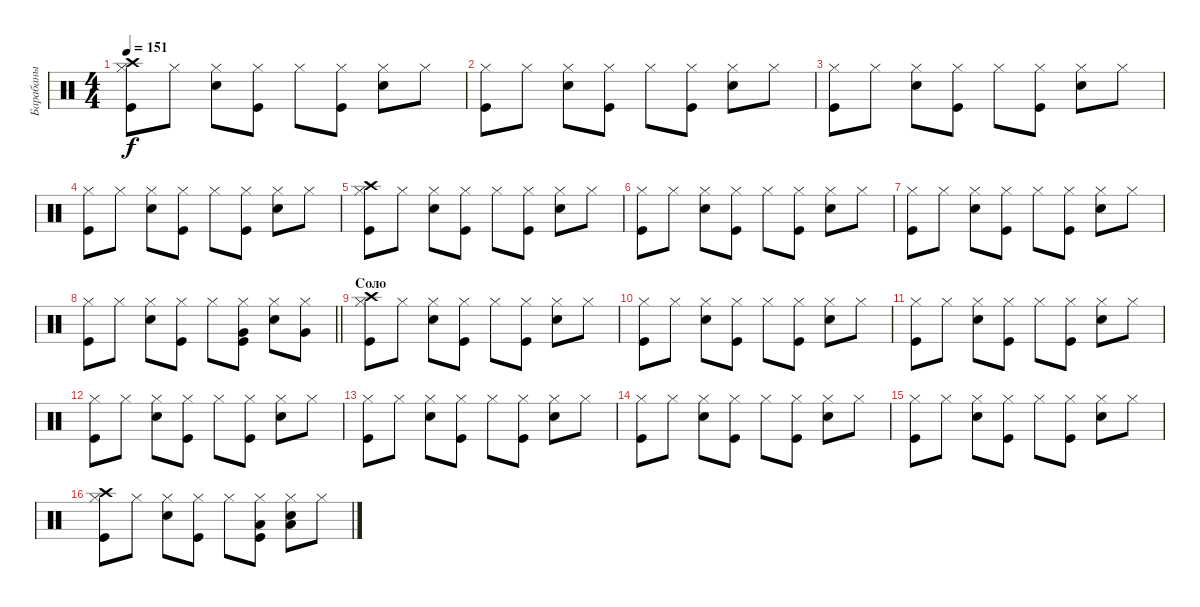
\track ("Барабаны" "Барабаны") {instrument percussion}
\staff {score}
\articulation defaults
\ts (4 4)
\tempo 151
\clef neutral
\ks c
("Kick (hit)" "Hi-Hat (closed)" "Crash high (hit)").8{dy f} "Hi-Hat (closed)".8 ("Snare (hit) 2" "Hi-Hat (closed)").8 ("Kick (hit)" "Hi-Hat (closed)").8 "Hi-Hat (closed)".8 ("Kick (hit)" "Hi-Hat (closed)").8 ("Snare (hit) 2" "Hi-Hat (closed)").8 "Hi-Hat (closed)".8 |
("Kick (hit)" "Hi-Hat (closed)").8 "Hi-Hat (closed)".8 ("Snare (hit) 2" "Hi-Hat (closed)").8 ("Kick (hit)" "Hi-Hat (closed)").8 "Hi-Hat (closed)".8 ("Kick (hit)" "Hi-Hat (closed)").8 ("Snare (hit) 2" "Hi-Hat (closed)").8 "Hi-Hat (closed)".8 |
("Kick (hit)" "Hi-Hat (closed)").8 "Hi-Hat (closed)".8 ("Snare (hit) 2" "Hi-Hat (closed)").8 ("Kick (hit)" "Hi-Hat (closed)").8 "Hi-Hat (closed)".8 ("Kick (hit)" "Hi-Hat (closed)").8 ("Snare (hit) 2" "Hi-Hat (closed)").8 "Hi-Hat (closed)".8 |
("Kick (hit)" "Hi-Hat (closed)").8 "Hi-Hat (closed)".8 ("Snare (hit) 2" "Hi-Hat (closed)").8 ("Kick (hit)" "Hi-Hat (closed)").8 "Hi-Hat (closed)".8 ("Kick (hit)" "Hi-Hat (closed)").8 ("Snare (hit) 2" "Hi-Hat (closed)").8 "Hi-Hat (closed)".8 |
("Kick (hit)" "Hi-Hat (closed)" "Crash high (hit)").8 "Hi-Hat (closed)".8 ("Snare (hit) 2" "Hi-Hat (closed)").8 ("Kick (hit)" "Hi-Hat (closed)").8 "Hi-Hat (closed)".8 ("Kick (hit)" "Hi-Hat (closed)").8 ("Snare (hit) 2" "Hi-Hat (closed)").8 "Hi-Hat (closed)".8 |
("Kick (hit)" "Hi-Hat (closed)").8 "Hi-Hat (closed)".8 ("Snare (hit) 2" "Hi-Hat (closed)").8 ("Kick (hit)" "Hi-Hat (closed)").8 "Hi-Hat (closed)".8 ("Kick (hit)" "Hi-Hat (closed)").8 ("Snare (hit) 2" "Hi-Hat (closed)").8 "Hi-Hat (closed)".8 |
("Kick (hit)" "Hi-Hat (closed)").8 "Hi-Hat (closed)".8 ("Snare (hit) 2" "Hi-Hat (closed)").8 ("Kick (hit)" "Hi-Hat (closed)").8 "Hi-Hat (closed)".8 ("Kick (hit)" "Hi-Hat (closed)").8 ("Snare (hit) 2" "Hi-Hat (closed)").8 "Hi-Hat (closed)".8 |
\barLineRight lightlight
("Kick (hit)" "Hi-Hat (closed)").8 "Hi-Hat (closed)".8 ("Snare (hit) 2" "Hi-Hat (closed)").8 ("Kick (hit)" "Hi-Hat (closed)").8 "Hi-Hat (closed)".8 ("Kick (hit)" "Hi-Hat (closed)" "Very Low Tom (hit)").8 ("Snare (hit) 2" "Hi-Hat (closed)").8 ("Hi-Hat (closed)" "Very Low Tom (hit)").8 |
\section ("" "Соло")
("Kick (hit)" "Hi-Hat (closed)" "Crash high (hit)").8 "Hi-Hat (closed)".8 ("Snare (hit) 2" "Hi-Hat (closed)").8 ("Kick (hit)" "Hi-Hat (closed)").8 "Hi-Hat (closed)".8 ("Kick (hit)" "Hi-Hat (closed)").8 ("Snare (hit) 2" "Hi-Hat (closed)").8 "Hi-Hat (closed)".8 |
("Kick (hit)" "Hi-Hat (closed)").8 "Hi-Hat (closed)".8 ("Snare (hit) 2" "Hi-Hat (closed)").8 ("Kick (hit)" "Hi-Hat (closed)").8 "Hi-Hat (closed)".8 ("Kick (hit)" "Hi-Hat (closed)").8 ("Snare (hit) 2" "Hi-Hat (closed)").8 "Hi-Hat (closed)".8 |
("Kick (hit)" "Hi-Hat (closed)").8 "Hi-Hat (closed)".8 ("Snare (hit) 2" "Hi-Hat (closed)").8 ("Kick (hit)" "Hi-Hat (closed)").8 "Hi-Hat (closed)".8 ("Kick (hit)" "Hi-Hat (closed)").8 ("Snare (hit) 2" "Hi-Hat (closed)").8 "Hi-Hat (closed)".8 |
("Kick (hit)" "Hi-Hat (closed)").8 "Hi-Hat (closed)".8 ("Snare (hit) 2" "Hi-Hat (closed)").8 ("Kick (hit)" "Hi-Hat (closed)").8 "Hi-Hat (closed)".8 ("Kick (hit)" "Hi-Hat (closed)").8 ("Snare (hit) 2" "Hi-Hat (closed)").8 "Hi-Hat (closed)".8 |
("Kick (hit)" "Hi-Hat (closed)").8 "Hi-Hat (closed)".8 ("Snare (hit) 2" "Hi-Hat (closed)").8 ("Kick (hit)" "Hi-Hat (closed)").8 "Hi-Hat (closed)".8 ("Kick (hit)" "Hi-Hat (closed)").8 ("Snare (hit) 2" "Hi-Hat (closed)").8 "Hi-Hat (closed)".8 |
("Kick (hit)" "Hi-Hat (closed)").8 "Hi-Hat (closed)".8 ("Snare (hit) 2" "Hi-Hat (closed)").8 ("Kick (hit)" "Hi-Hat (closed)").8 "Hi-Hat (closed)".8 ("Kick (hit)" "Hi-Hat (closed)").8 ("Snare (hit) 2" "Hi-Hat (closed)").8 "Hi-Hat (closed)".8 |
("Kick (hit)" "Hi-Hat (closed)").8 "Hi-Hat (closed)".8 ("Snare (hit) 2" "Hi-Hat (closed)").8 ("Kick (hit)" "Hi-Hat (closed)").8 "Hi-Hat (closed)".8 ("Kick (hit)" "Hi-Hat (closed)").8 ("Snare (hit) 2" "Hi-Hat (closed)").8 "Hi-Hat (closed)".8 |
("Kick (hit)" "Hi-Hat (closed)" "Crash high (hit)").8 "Hi-Hat (closed)".8 ("Snare (hit) 2" "Hi-Hat (closed)").8 ("Kick (hit)" "Hi-Hat (closed)").8 "Hi-Hat (closed)".8 ("Kick (hit)" "Hi-Hat (closed)" "Low Floor Tom (hit)").8 ("Snare (hit) 2" "Hi-Hat (closed)" "Low Floor Tom (hit)").8 "Hi-Hat (closed)".8
